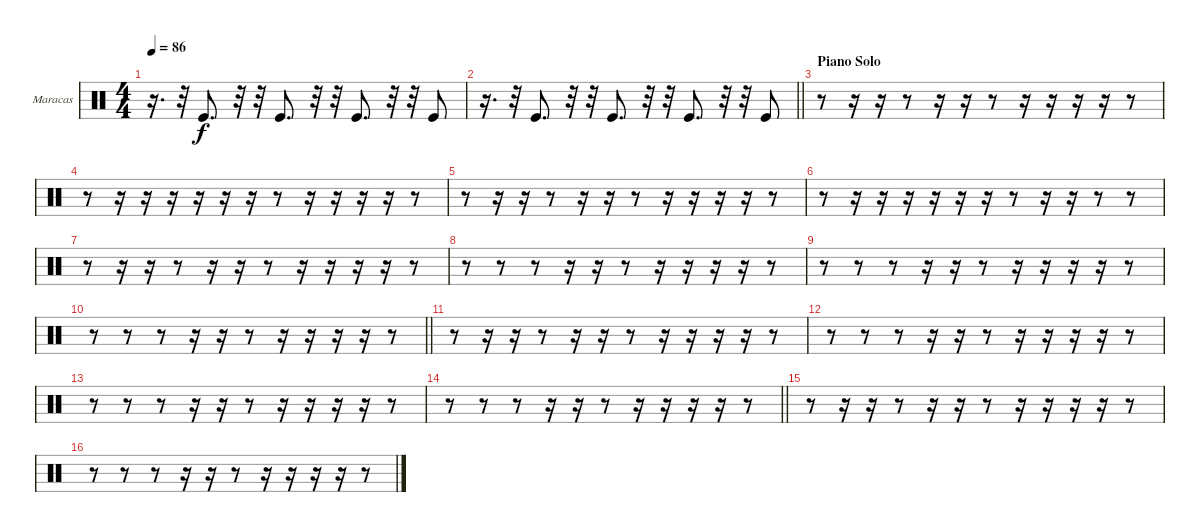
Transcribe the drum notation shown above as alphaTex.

\bracketExtendMode groupsimilarinstruments
\firstSystemTrackNameOrientation horizontal
\otherSystemsTrackNameOrientation horizontal
\track ("Maracas" "Maracas") {instrument percussion}
\staff {score}
\articulation defaults
\ts (4 4)
\tempo 86
\clef neutral
\ks c
r.16{d dy f} r.32 "Kick (hit)".8{d} r.32 r.32 "Kick (hit)".8{d} r.32 r.32 "Kick (hit)".8{d} r.32 r.32 "Kick (hit)".8 |
\barLineRight lightlight
r.16{d} r.32 "Kick (hit)".8{d} r.32 r.32 "Kick (hit)".8{d} r.32 r.32 "Kick (hit)".8{d} r.32 r.32 "Kick (hit)".8 |
\section ("" "Piano Solo")
r.8 r.16 r.16 r.8 r.16 r.16 r.8 r.16 r.16 r.16 r.16 r.8 |
r.8 r.16 r.16 r.16 r.16 r.16 r.16 r.8 r.16 r.16 r.16 r.16 r.8 |
r.8 r.16 r.16 r.8 r.16 r.16 r.8 r.16 r.16 r.16 r.16 r.8 |
r.8 r.16 r.16 r.16 r.16 r.16 r.16 r.8 r.16 r.16 r.8 r.8 |
r.8 r.16 r.16 r.8 r.16 r.16 r.8 r.16 r.16 r.16 r.16 r.8 |
r.8 r.8 r.8 r.16 r.16 r.8 r.16 r.16 r.16 r.16 r.8 |
r.8 r.8 r.8 r.16 r.16 r.8 r.16 r.16 r.16 r.16 r.8 |
\barLineRight lightlight
r.8 r.8 r.8 r.16 r.16 r.8 r.16 r.16 r.16 r.16 r.8 |
r.8 r.16 r.16 r.8 r.16 r.16 r.8 r.16 r.16 r.16 r.16 r.8 |
r.8 r.8 r.8 r.16 r.16 r.8 r.16 r.16 r.16 r.16 r.8 |
r.8 r.8 r.8 r.16 r.16 r.8 r.16 r.16 r.16 r.16 r.8 |
\barLineRight lightlight
r.8 r.8 r.8 r.16 r.16 r.8 r.16 r.16 r.16 r.16 r.8 |
r.8 r.16 r.16 r.8 r.16 r.16 r.8 r.16 r.16 r.16 r.16 r.8 |
r.8 r.8 r.8 r.16 r.16 r.8 r.16 r.16 r.16 r.16 r.8
